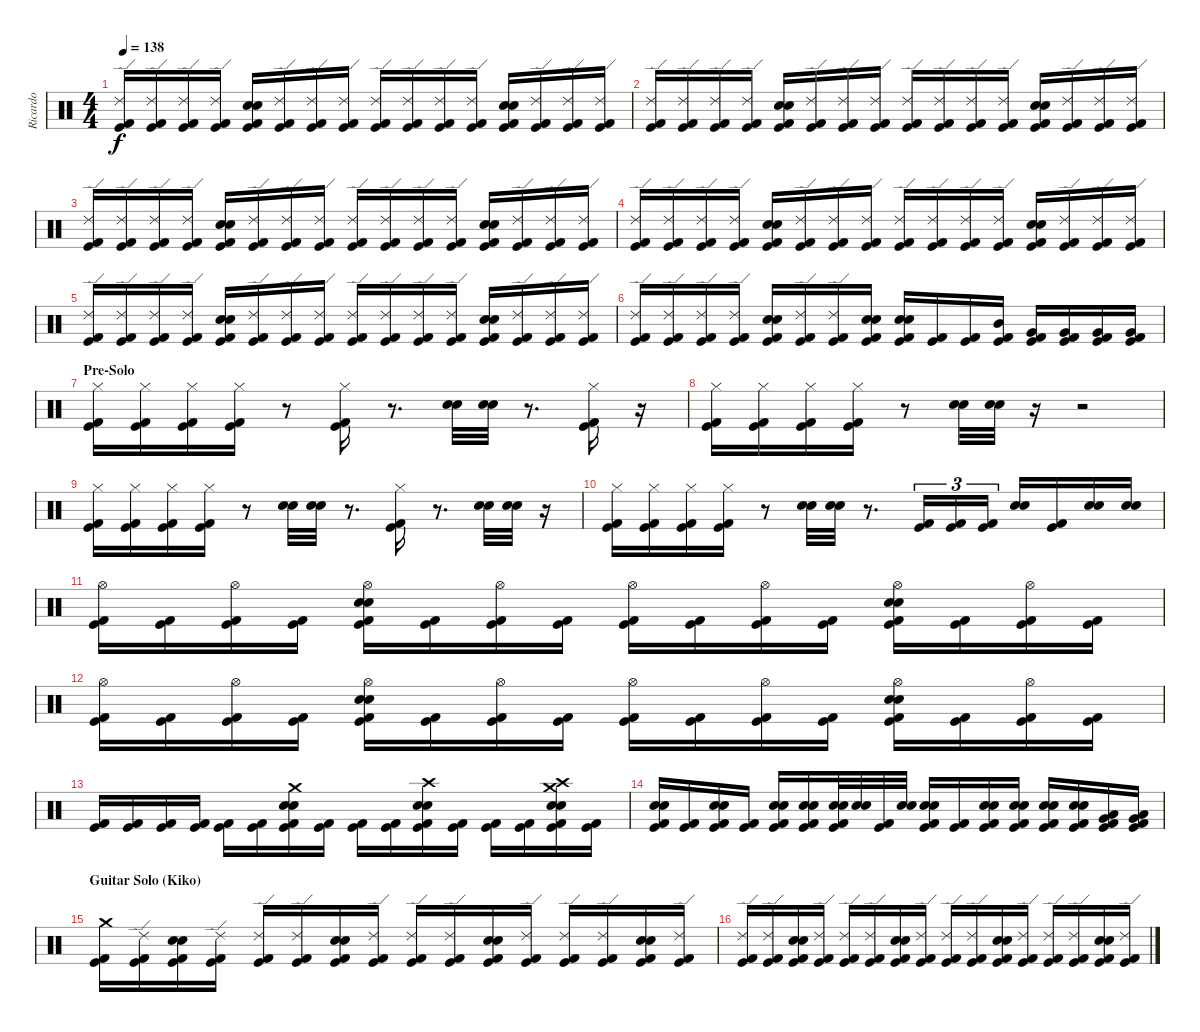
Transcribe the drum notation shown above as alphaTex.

\track ("Ricardo" "Ricardo") {instrument percussion}
\staff {score}
\articulation defaults
\ts (4 4)
\tempo 138
\clef neutral
\ks c
("Ride (edge) 2" "Kick (hit) 2" "Kick (hit)").16{dy f} ("Ride (edge) 2" "Kick (hit) 2" "Kick (hit)").16 ("Ride (edge) 2" "Kick (hit) 2" "Kick (hit)").16 ("Ride (edge) 2" "Kick (hit) 2" "Kick (hit)").16 ("Electric Snare (hit)" "Snare (hit) 2" "Kick (hit) 2" "Kick (hit)").16 ("Ride (edge) 2" "Kick (hit) 2" "Kick (hit)").16 ("Ride (edge) 2" "Kick (hit) 2" "Kick (hit)").16 ("Ride (edge) 2" "Kick (hit) 2" "Kick (hit)").16 ("Ride (edge) 2" "Kick (hit) 2" "Kick (hit)").16 ("Ride (edge) 2" "Kick (hit) 2" "Kick (hit)").16 ("Ride (edge) 2" "Kick (hit) 2" "Kick (hit)").16 ("Ride (edge) 2" "Kick (hit) 2" "Kick (hit)").16 ("Electric Snare (hit)" "Snare (hit) 2" "Kick (hit) 2" "Kick (hit)").16 ("Ride (edge) 2" "Kick (hit) 2" "Kick (hit)").16 ("Ride (edge) 2" "Kick (hit) 2" "Kick (hit)").16 ("Ride (edge) 2" "Kick (hit) 2" "Kick (hit)").16 |
("Ride (edge) 2" "Kick (hit) 2" "Kick (hit)").16 ("Ride (edge) 2" "Kick (hit) 2" "Kick (hit)").16 ("Ride (edge) 2" "Kick (hit) 2" "Kick (hit)").16 ("Ride (edge) 2" "Kick (hit) 2" "Kick (hit)").16 ("Electric Snare (hit)" "Snare (hit) 2" "Kick (hit) 2" "Kick (hit)").16 ("Ride (edge) 2" "Kick (hit) 2" "Kick (hit)").16 ("Ride (edge) 2" "Kick (hit) 2" "Kick (hit)").16 ("Ride (edge) 2" "Kick (hit) 2" "Kick (hit)").16 ("Ride (edge) 2" "Kick (hit) 2" "Kick (hit)").16 ("Ride (edge) 2" "Kick (hit) 2" "Kick (hit)").16 ("Ride (edge) 2" "Kick (hit) 2" "Kick (hit)").16 ("Ride (edge) 2" "Kick (hit) 2" "Kick (hit)").16 ("Electric Snare (hit)" "Snare (hit) 2" "Kick (hit) 2" "Kick (hit)").16 ("Ride (edge) 2" "Kick (hit) 2" "Kick (hit)").16 ("Ride (edge) 2" "Kick (hit) 2" "Kick (hit)").16 ("Ride (edge) 2" "Kick (hit) 2" "Kick (hit)").16 |
("Ride (edge) 2" "Kick (hit) 2" "Kick (hit)").16 ("Ride (edge) 2" "Kick (hit) 2" "Kick (hit)").16 ("Ride (edge) 2" "Kick (hit) 2" "Kick (hit)").16 ("Ride (edge) 2" "Kick (hit) 2" "Kick (hit)").16 ("Electric Snare (hit)" "Snare (hit) 2" "Kick (hit) 2" "Kick (hit)").16 ("Ride (edge) 2" "Kick (hit) 2" "Kick (hit)").16 ("Ride (edge) 2" "Kick (hit) 2" "Kick (hit)").16 ("Ride (edge) 2" "Kick (hit) 2" "Kick (hit)").16 ("Ride (edge) 2" "Kick (hit) 2" "Kick (hit)").16 ("Ride (edge) 2" "Kick (hit) 2" "Kick (hit)").16 ("Ride (edge) 2" "Kick (hit) 2" "Kick (hit)").16 ("Ride (edge) 2" "Kick (hit) 2" "Kick (hit)").16 ("Electric Snare (hit)" "Snare (hit) 2" "Kick (hit) 2" "Kick (hit)").16 ("Ride (edge) 2" "Kick (hit) 2" "Kick (hit)").16 ("Ride (edge) 2" "Kick (hit) 2" "Kick (hit)").16 ("Ride (edge) 2" "Kick (hit) 2" "Kick (hit)").16 |
("Ride (edge) 2" "Kick (hit) 2" "Kick (hit)").16 ("Ride (edge) 2" "Kick (hit) 2" "Kick (hit)").16 ("Ride (edge) 2" "Kick (hit) 2" "Kick (hit)").16 ("Ride (edge) 2" "Kick (hit) 2" "Kick (hit)").16 ("Electric Snare (hit)" "Snare (hit) 2" "Kick (hit) 2" "Kick (hit)").16 ("Ride (edge) 2" "Kick (hit) 2" "Kick (hit)").16 ("Ride (edge) 2" "Kick (hit) 2" "Kick (hit)").16 ("Ride (edge) 2" "Kick (hit) 2" "Kick (hit)").16 ("Ride (edge) 2" "Kick (hit) 2" "Kick (hit)").16 ("Ride (edge) 2" "Kick (hit) 2" "Kick (hit)").16 ("Ride (edge) 2" "Kick (hit) 2" "Kick (hit)").16 ("Ride (edge) 2" "Kick (hit) 2" "Kick (hit)").16 ("Electric Snare (hit)" "Snare (hit) 2" "Kick (hit) 2" "Kick (hit)").16 ("Ride (edge) 2" "Kick (hit) 2" "Kick (hit)").16 ("Ride (edge) 2" "Kick (hit) 2" "Kick (hit)").16 ("Ride (edge) 2" "Kick (hit) 2" "Kick (hit)").16 |
("Ride (edge) 2" "Kick (hit) 2" "Kick (hit)").16 ("Ride (edge) 2" "Kick (hit) 2" "Kick (hit)").16 ("Ride (edge) 2" "Kick (hit) 2" "Kick (hit)").16 ("Ride (edge) 2" "Kick (hit) 2" "Kick (hit)").16 ("Electric Snare (hit)" "Snare (hit) 2" "Kick (hit) 2" "Kick (hit)").16 ("Ride (edge) 2" "Kick (hit) 2" "Kick (hit)").16 ("Ride (edge) 2" "Kick (hit) 2" "Kick (hit)").16 ("Ride (edge) 2" "Kick (hit) 2" "Kick (hit)").16 ("Ride (edge) 2" "Kick (hit) 2" "Kick (hit)").16 ("Ride (edge) 2" "Kick (hit) 2" "Kick (hit)").16 ("Ride (edge) 2" "Kick (hit) 2" "Kick (hit)").16 ("Ride (edge) 2" "Kick (hit) 2" "Kick (hit)").16 ("Electric Snare (hit)" "Snare (hit) 2" "Kick (hit) 2" "Kick (hit)").16 ("Ride (edge) 2" "Kick (hit) 2" "Kick (hit)").16 ("Ride (edge) 2" "Kick (hit) 2" "Kick (hit)").16 ("Ride (edge) 2" "Kick (hit) 2" "Kick (hit)").16 |
("Ride (edge) 2" "Kick (hit) 2" "Kick (hit)").16 ("Ride (edge) 2" "Kick (hit) 2" "Kick (hit)").16 ("Ride (edge) 2" "Kick (hit) 2" "Kick (hit)").16 ("Ride (edge) 2" "Kick (hit) 2" "Kick (hit)").16 ("Electric Snare (hit)" "Snare (hit) 2" "Kick (hit) 2" "Kick (hit)").16 ("Ride (edge) 2" "Kick (hit) 2" "Kick (hit)").16 ("Ride (edge) 2" "Kick (hit) 2" "Kick (hit)").16 ("Electric Snare (hit)" "Snare (hit) 2" "Kick (hit) 2" "Kick (hit)").16 ("Electric Snare (hit)" "Snare (hit) 2" "Kick (hit) 2" "Kick (hit)").16 ("Kick (hit) 2" "Kick (hit)").16 ("Kick (hit) 2" "Kick (hit)").16 ("Mid Tom (hit)" "Kick (hit) 2" "Kick (hit)").16 ("Very Low Tom (hit)" "Kick (hit) 2" "Kick (hit)").16 ("Very Low Tom (hit)" "Kick (hit) 2" "Kick (hit)").16 ("Very Low Tom (hit)" "Kick (hit) 2" "Kick (hit)").16 ("Very Low Tom (hit)" "Kick (hit) 2" "Kick (hit)").16 |
\section ("" "Pre-Solo")
("Hi-Hat (closed)" "Kick (hit) 2" "Kick (hit)").16 ("Hi-Hat (closed)" "Kick (hit) 2" "Kick (hit)").16 ("Hi-Hat (closed)" "Kick (hit) 2" "Kick (hit)").16 ("Hi-Hat (closed)" "Kick (hit) 2" "Kick (hit)").16 r.8 ("Hi-Hat (closed)" "Kick (hit) 2" "Kick (hit)").16 r.8{d} ("Electric Snare (hit)" "Snare (hit) 2").32 ("Electric Snare (hit)" "Snare (hit) 2").32 r.8{d} ("Hi-Hat (closed)" "Kick (hit) 2" "Kick (hit)").16 r.16 |
("Hi-Hat (closed)" "Kick (hit) 2" "Kick (hit)").16 ("Hi-Hat (closed)" "Kick (hit) 2" "Kick (hit)").16 ("Hi-Hat (closed)" "Kick (hit) 2" "Kick (hit)").16 ("Hi-Hat (closed)" "Kick (hit) 2" "Kick (hit)").16 r.8 ("Electric Snare (hit)" "Snare (hit) 2").32 ("Electric Snare (hit)" "Snare (hit) 2").32 r.16 r.2 |
("Hi-Hat (closed)" "Kick (hit) 2" "Kick (hit)").16 ("Hi-Hat (closed)" "Kick (hit) 2" "Kick (hit)").16 ("Hi-Hat (closed)" "Kick (hit) 2" "Kick (hit)").16 ("Hi-Hat (closed)" "Kick (hit) 2" "Kick (hit)").16 r.8 ("Electric Snare (hit)" "Snare (hit) 2").32 ("Electric Snare (hit)" "Snare (hit) 2").32 r.8{d} ("Hi-Hat (closed)" "Kick (hit) 2" "Kick (hit)").16 r.8{d} ("Electric Snare (hit)" "Snare (hit) 2").32 ("Electric Snare (hit)" "Snare (hit) 2").32 r.16 |
("Hi-Hat (closed)" "Kick (hit) 2" "Kick (hit)").16 ("Hi-Hat (closed)" "Kick (hit) 2" "Kick (hit)").16 ("Hi-Hat (closed)" "Kick (hit) 2" "Kick (hit)").16 ("Hi-Hat (closed)" "Kick (hit) 2" "Kick (hit)").16 r.8 ("Electric Snare (hit)" "Snare (hit) 2").32 ("Snare (hit) 2" "Electric Snare (hit)").32 r.8{d} ("Kick (hit) 2" "Kick (hit)").16{tu (3 2)} ("Kick (hit) 2" "Kick (hit)").16{tu (3 2)} ("Kick (hit) 2" "Kick (hit)").16{tu (3 2)} ("Electric Snare (hit)" "Snare (hit) 2").16 ("Kick (hit) 2" "Kick (hit)").16 ("Electric Snare (hit)" "Snare (hit) 2").16 ("Snare (hit) 2" "Electric Snare (hit)").16 |
("Hi-Hat (open)" "Kick (hit) 2" "Kick (hit)").16 ("Kick (hit) 2" "Kick (hit)").16 ("Hi-Hat (open)" "Kick (hit) 2" "Kick (hit)").16 ("Kick (hit) 2" "Kick (hit)").16 ("Electric Snare (hit)" "Snare (hit) 2" "Hi-Hat (open)" "Kick (hit) 2" "Kick (hit)").16 ("Kick (hit) 2" "Kick (hit)").16 ("Hi-Hat (open)" "Kick (hit)" "Kick (hit) 2").16 ("Kick (hit) 2" "Kick (hit)").16 ("Hi-Hat (open)" "Kick (hit) 2" "Kick (hit)").16 ("Kick (hit) 2" "Kick (hit)").16 ("Hi-Hat (open)" "Kick (hit) 2" "Kick (hit)").16 ("Kick (hit) 2" "Kick (hit)").16 ("Electric Snare (hit)" "Snare (hit) 2" "Hi-Hat (open)" "Kick (hit) 2" "Kick (hit)").16 ("Kick (hit) 2" "Kick (hit)").16 ("Hi-Hat (open)" "Kick (hit) 2" "Kick (hit)").16 ("Kick (hit) 2" "Kick (hit)").16 |
("Hi-Hat (open)" "Kick (hit) 2" "Kick (hit)").16 ("Kick (hit) 2" "Kick (hit)").16 ("Hi-Hat (open)" "Kick (hit) 2" "Kick (hit)").16 ("Kick (hit) 2" "Kick (hit)").16 ("Electric Snare (hit)" "Snare (hit) 2" "Hi-Hat (open)" "Kick (hit) 2" "Kick (hit)").16 ("Kick (hit) 2" "Kick (hit)").16 ("Hi-Hat (open)" "Kick (hit)" "Kick (hit) 2").16 ("Kick (hit) 2" "Kick (hit)").16 ("Hi-Hat (open)" "Kick (hit) 2" "Kick (hit)").16 ("Kick (hit) 2" "Kick (hit)").16 ("Hi-Hat (open)" "Kick (hit) 2" "Kick (hit)").16 ("Kick (hit) 2" "Kick (hit)").16 ("Electric Snare (hit)" "Snare (hit) 2" "Hi-Hat (open)" "Kick (hit) 2" "Kick (hit)").16 ("Kick (hit) 2" "Kick (hit)").16 ("Hi-Hat (open)" "Kick (hit) 2" "Kick (hit)").16 ("Kick (hit) 2" "Kick (hit)").16 |
("Kick (hit) 2" "Kick (hit)").16 ("Kick (hit) 2" "Kick (hit)").16 ("Kick (hit) 2" "Kick (hit)").16 ("Kick (hit) 2" "Kick (hit)").16 ("Kick (hit) 2" "Kick (hit)").16 ("Kick (hit) 2" "Kick (hit)").16 ("Crash medium (hit)" "Electric Snare (hit)" "Snare (hit) 2" "Kick (hit)" "Kick (hit) 2").16 ("Kick (hit) 2" "Kick (hit)").16 ("Kick (hit) 2" "Kick (hit)").16 ("Kick (hit) 2" "Kick (hit)").16 ("Crash high (hit)" "Electric Snare (hit)" "Snare (hit) 2" "Kick (hit) 2" "Kick (hit)").16 ("Kick (hit) 2" "Kick (hit)").16 ("Kick (hit) 2" "Kick (hit)").16 ("Kick (hit) 2" "Kick (hit)").16 ("Crash high (hit)" "Crash medium (hit)" "Electric Snare (hit)" "Snare (hit) 2" "Kick (hit) 2" "Kick (hit)").16 ("Kick (hit) 2" "Kick (hit)").16 |
("Snare (hit) 2" "Electric Snare (hit)" "Kick (hit) 2" "Kick (hit)").16 ("Kick (hit) 2" "Kick (hit)").16 ("Snare (hit) 2" "Electric Snare (hit)" "Kick (hit) 2" "Kick (hit)").16 ("Kick (hit) 2" "Kick (hit)").16 ("Electric Snare (hit)" "Snare (hit) 2" "Kick (hit) 2" "Kick (hit)").16 ("Electric Snare (hit)" "Snare (hit) 2" "Kick (hit) 2" "Kick (hit)").16 ("Electric Snare (hit)" "Snare (hit) 2" "Kick (hit)" "Kick (hit) 2").32 ("Electric Snare (hit)" "Snare (hit) 2").32 ("Kick (hit) 2" "Kick (hit)").32 ("Electric Snare (hit)" "Snare (hit) 2").32 ("Snare (hit) 2" "Electric Snare (hit)" "Kick (hit) 2" "Kick (hit)").16 ("Kick (hit) 2" "Kick (hit)").16 ("Snare (hit) 2" "Electric Snare (hit)" "Kick (hit) 2" "Kick (hit)").16 ("Snare (hit) 2" "Electric Snare (hit)" "Kick (hit) 2" "Kick (hit)").16 ("Snare (hit) 2" "Electric Snare (hit)" "Kick (hit) 2" "Kick (hit)").16 ("Snare (hit) 2" "Electric Snare (hit)" "Kick (hit) 2" "Kick (hit)").16 ("Low Tom (hit)" "Very Low Tom (hit)" "Kick (hit) 2" "Kick (hit)").16 ("Low Tom (hit)" "Very Low Tom (hit)" "Kick (hit) 2" "Kick (hit)").16 |
\section ("" "Guitar Solo (Kiko)")
("Crash medium (hit)" "Kick (hit) 2" "Kick (hit)").16 ("Ride (edge) 2" "Kick (hit) 2" "Kick (hit)").16 ("Electric Snare (hit)" "Snare (hit) 2" "Kick (hit) 2" "Kick (hit)").16 ("Ride (edge) 2" "Kick (hit) 2" "Kick (hit)").16 ("Ride (edge) 2" "Kick (hit) 2" "Kick (hit)").16 ("Ride (edge) 2" "Kick (hit) 2" "Kick (hit)").16 ("Electric Snare (hit)" "Snare (hit) 2" "Kick (hit) 2" "Kick (hit)").16 ("Ride (edge) 2" "Kick (hit) 2" "Kick (hit)").16 ("Ride (edge) 2" "Kick (hit) 2" "Kick (hit)").16 ("Ride (edge) 2" "Kick (hit) 2" "Kick (hit)").16 ("Electric Snare (hit)" "Snare (hit) 2" "Kick (hit) 2" "Kick (hit)").16 ("Ride (edge) 2" "Kick (hit) 2" "Kick (hit)").16 ("Ride (edge) 2" "Kick (hit) 2" "Kick (hit)").16 ("Ride (edge) 2" "Kick (hit) 2" "Kick (hit)").16 ("Electric Snare (hit)" "Snare (hit) 2" "Kick (hit) 2" "Kick (hit)").16 ("Ride (edge) 2" "Kick (hit) 2" "Kick (hit)").16 |
("Ride (edge) 2" "Kick (hit) 2" "Kick (hit)").16 ("Ride (edge) 2" "Kick (hit) 2" "Kick (hit)").16 ("Electric Snare (hit)" "Snare (hit) 2" "Kick (hit) 2" "Kick (hit)").16 ("Ride (edge) 2" "Kick (hit) 2" "Kick (hit)").16 ("Ride (edge) 2" "Kick (hit) 2" "Kick (hit)").16 ("Ride (edge) 2" "Kick (hit) 2" "Kick (hit)").16 ("Electric Snare (hit)" "Snare (hit) 2" "Kick (hit) 2" "Kick (hit)").16 ("Ride (edge) 2" "Kick (hit) 2" "Kick (hit)").16 ("Ride (edge) 2" "Kick (hit) 2" "Kick (hit)").16 ("Ride (edge) 2" "Kick (hit) 2" "Kick (hit)").16 ("Electric Snare (hit)" "Snare (hit) 2" "Kick (hit) 2" "Kick (hit)").16 ("Ride (edge) 2" "Kick (hit) 2" "Kick (hit)").16 ("Ride (edge) 2" "Kick (hit) 2" "Kick (hit)").16 ("Ride (edge) 2" "Kick (hit) 2" "Kick (hit)").16 ("Electric Snare (hit)" "Snare (hit) 2" "Kick (hit) 2" "Kick (hit)").16 ("Ride (edge) 2" "Kick (hit) 2" "Kick (hit)").16
